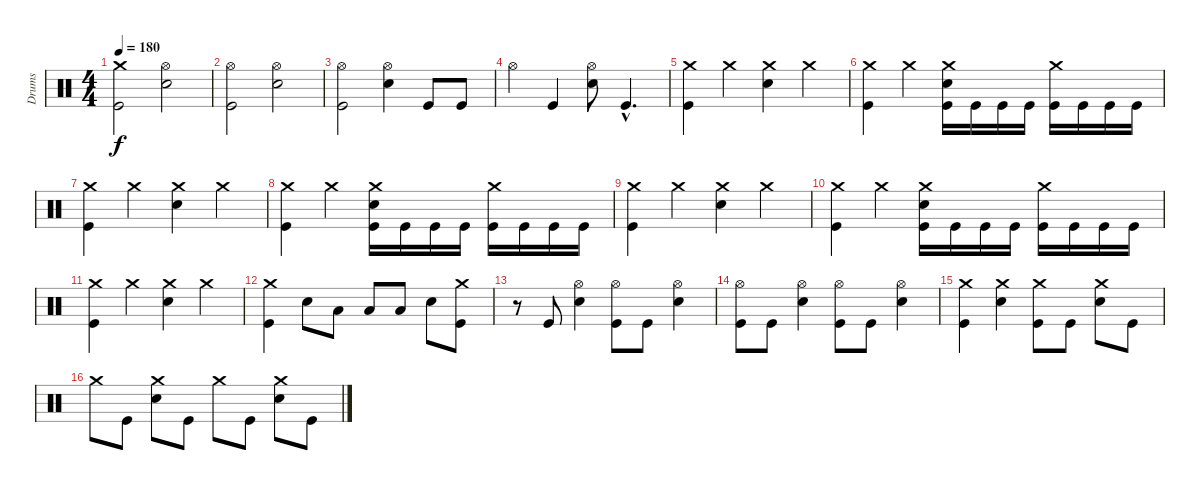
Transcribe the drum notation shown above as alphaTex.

\track ("Drums" "Drums") {instrument percussion}
\staff {score}
\articulation defaults
\ts (4 4)
\tempo 180
\clef neutral
\ks c
("Crash medium (hit)" "Kick (hit)").2{dy f} ("Hi-Hat (open)" "Electric Snare (hit)").2 |
("Hi-Hat (open)" "Kick (hit)").2 ("Hi-Hat (open)" "Electric Snare (hit)").2 |
("Hi-Hat (open)" "Kick (hit)").2 ("Hi-Hat (open)" "Electric Snare (hit)").4 "Kick (hit)".8 "Kick (hit)".8 |
"Hi-Hat (open)".4 "Kick (hit)".4 ("Hi-Hat (open)" "Electric Snare (hit)").8 "Kick (hit)"{hac}.4{d} |
("Crash medium (hit)" "Kick (hit)").4 "Crash medium (hit)".4 ("Crash medium (hit)" "Electric Snare (hit)").4 "Crash medium (hit)".4 |
("Crash medium (hit)" "Kick (hit)").4 "Crash medium (hit)".4 ("Crash medium (hit)" "Kick (hit)" "Electric Snare (hit)").16 "Kick (hit)".16 "Kick (hit)".16 "Kick (hit)".16 ("Crash medium (hit)" "Kick (hit)").16 "Kick (hit)".16 "Kick (hit)".16 "Kick (hit)".16 |
("Crash medium (hit)" "Kick (hit)").4 "Crash medium (hit)".4 ("Crash medium (hit)" "Electric Snare (hit)").4 "Crash medium (hit)".4 |
("Crash medium (hit)" "Kick (hit)").4 "Crash medium (hit)".4 ("Crash medium (hit)" "Kick (hit)" "Electric Snare (hit)").16 "Kick (hit)".16 "Kick (hit)".16 "Kick (hit)".16 ("Crash medium (hit)" "Kick (hit)").16 "Kick (hit)".16 "Kick (hit)".16 "Kick (hit)".16 |
("Crash medium (hit)" "Kick (hit)").4 "Crash medium (hit)".4 ("Crash medium (hit)" "Electric Snare (hit)").4 "Crash medium (hit)".4 |
("Crash medium (hit)" "Kick (hit)").4 "Crash medium (hit)".4 ("Crash medium (hit)" "Kick (hit)" "Electric Snare (hit)").16 "Kick (hit)".16 "Kick (hit)".16 "Kick (hit)".16 ("Crash medium (hit)" "Kick (hit)").16 "Kick (hit)".16 "Kick (hit)".16 "Kick (hit)".16 |
("Crash medium (hit)" "Kick (hit)").4 "Crash medium (hit)".4 ("Crash medium (hit)" "Electric Snare (hit)").4 "Crash medium (hit)".4 |
("Crash medium (hit)" "Kick (hit)").4 "Electric Snare (hit)".8 "Low Tom (hit)".8 "Low Tom (hit)".8 "Low Tom (hit)".8 "Electric Snare (hit)".8 ("Crash medium (hit)" "Kick (hit)").8 |
r.8 "Kick (hit)".8 ("Hi-Hat (open)" "Electric Snare (hit)").4 ("Hi-Hat (open)" "Kick (hit)").8 "Kick (hit)".8 ("Hi-Hat (open)" "Electric Snare (hit)").4 |
("Hi-Hat (open)" "Kick (hit)").8 "Kick (hit)".8 ("Hi-Hat (open)" "Electric Snare (hit)").4 ("Hi-Hat (open)" "Kick (hit)").8 "Kick (hit)".8 ("Hi-Hat (open)" "Electric Snare (hit)").4 |
("Crash medium (hit)" "Kick (hit)").4 ("Crash medium (hit)" "Electric Snare (hit)").4 ("Crash medium (hit)" "Kick (hit)").8 "Kick (hit)".8 ("Crash medium (hit)" "Electric Snare (hit)").8 "Kick (hit)".8 |
"Crash medium (hit)".8 "Kick (hit)".8 ("Crash medium (hit)" "Electric Snare (hit)").8 "Kick (hit)".8 "Crash medium (hit)".8 "Kick (hit)".8 ("Crash medium (hit)" "Electric Snare (hit)").8 "Kick (hit)".8
